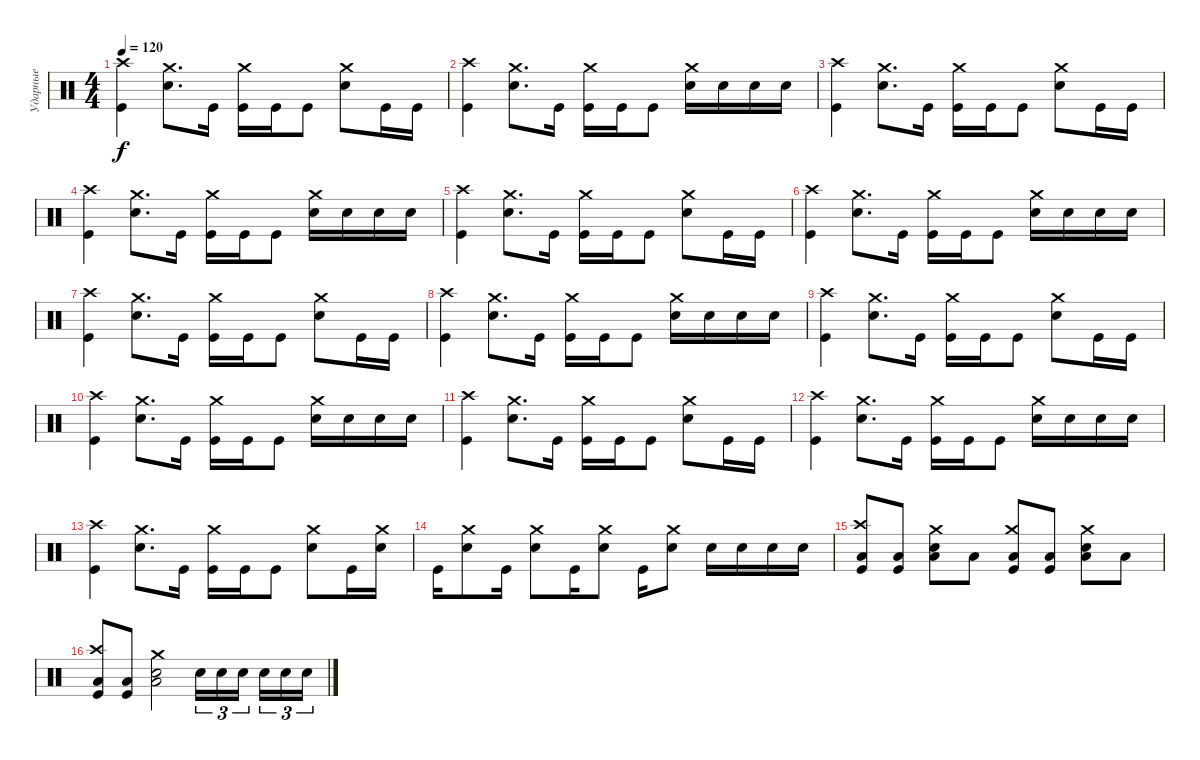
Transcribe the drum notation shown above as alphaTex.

\track ("Ударные" "Ударные") {instrument percussion}
\staff {score}
\articulation defaults
\ts (4 4)
\tempo 120
\clef neutral
\ks c
("Kick (hit)" "Crash high (hit)").4{dy f} ("Snare (hit) 2" "Crash medium (hit)").8{d} "Kick (hit)".16 ("Kick (hit)" "Crash medium (hit)").16 "Kick (hit)".16 "Kick (hit)".8 ("Snare (hit) 2" "Crash medium (hit)").8 "Kick (hit)".16 "Kick (hit)".16 |
("Kick (hit)" "Crash high (hit)").4 ("Snare (hit) 2" "Crash medium (hit)").8{d} "Kick (hit)".16 ("Kick (hit)" "Crash medium (hit)").16 "Kick (hit)".16 "Kick (hit)".8 ("Snare (hit) 2" "Crash medium (hit)").16 "Snare (hit) 2".16 "Snare (hit) 2".16 "Snare (hit) 2".16 |
("Kick (hit)" "Crash high (hit)").4 ("Snare (hit) 2" "Crash medium (hit)").8{d} "Kick (hit)".16 ("Kick (hit)" "Crash medium (hit)").16 "Kick (hit)".16 "Kick (hit)".8 ("Snare (hit) 2" "Crash medium (hit)").8 "Kick (hit)".16 "Kick (hit)".16 |
("Kick (hit)" "Crash high (hit)").4 ("Snare (hit) 2" "Crash medium (hit)").8{d} "Kick (hit)".16 ("Kick (hit)" "Crash medium (hit)").16 "Kick (hit)".16 "Kick (hit)".8 ("Snare (hit) 2" "Crash medium (hit)").16 "Snare (hit) 2".16 "Snare (hit) 2".16 "Snare (hit) 2".16 |
("Kick (hit)" "Crash high (hit)").4 ("Snare (hit) 2" "Crash medium (hit)").8{d} "Kick (hit)".16 ("Kick (hit)" "Crash medium (hit)").16 "Kick (hit)".16 "Kick (hit)".8 ("Snare (hit) 2" "Crash medium (hit)").8 "Kick (hit)".16 "Kick (hit)".16 |
("Kick (hit)" "Crash high (hit)").4 ("Snare (hit) 2" "Crash medium (hit)").8{d} "Kick (hit)".16 ("Kick (hit)" "Crash medium (hit)").16 "Kick (hit)".16 "Kick (hit)".8 ("Snare (hit) 2" "Crash medium (hit)").16 "Snare (hit) 2".16 "Snare (hit) 2".16 "Snare (hit) 2".16 |
("Kick (hit)" "Crash high (hit)").4 ("Snare (hit) 2" "Crash medium (hit)").8{d} "Kick (hit)".16 ("Kick (hit)" "Crash medium (hit)").16 "Kick (hit)".16 "Kick (hit)".8 ("Snare (hit) 2" "Crash medium (hit)").8 "Kick (hit)".16 "Kick (hit)".16 |
("Kick (hit)" "Crash high (hit)").4 ("Snare (hit) 2" "Crash medium (hit)").8{d} "Kick (hit)".16 ("Kick (hit)" "Crash medium (hit)").16 "Kick (hit)".16 "Kick (hit)".8 ("Snare (hit) 2" "Crash medium (hit)").16 "Snare (hit) 2".16 "Snare (hit) 2".16 "Snare (hit) 2".16 |
("Kick (hit)" "Crash high (hit)").4 ("Snare (hit) 2" "Crash medium (hit)").8{d} "Kick (hit)".16 ("Kick (hit)" "Crash medium (hit)").16 "Kick (hit)".16 "Kick (hit)".8 ("Snare (hit) 2" "Crash medium (hit)").8 "Kick (hit)".16 "Kick (hit)".16 |
("Kick (hit)" "Crash high (hit)").4 ("Snare (hit) 2" "Crash medium (hit)").8{d} "Kick (hit)".16 ("Kick (hit)" "Crash medium (hit)").16 "Kick (hit)".16 "Kick (hit)".8 ("Snare (hit) 2" "Crash medium (hit)").16 "Snare (hit) 2".16 "Snare (hit) 2".16 "Snare (hit) 2".16 |
("Kick (hit)" "Crash high (hit)").4 ("Snare (hit) 2" "Crash medium (hit)").8{d} "Kick (hit)".16 ("Kick (hit)" "Crash medium (hit)").16 "Kick (hit)".16 "Kick (hit)".8 ("Snare (hit) 2" "Crash medium (hit)").8 "Kick (hit)".16 "Kick (hit)".16 |
("Kick (hit)" "Crash high (hit)").4 ("Snare (hit) 2" "Crash medium (hit)").8{d} "Kick (hit)".16 ("Kick (hit)" "Crash medium (hit)").16 "Kick (hit)".16 "Kick (hit)".8 ("Snare (hit) 2" "Crash medium (hit)").16 "Snare (hit) 2".16 "Snare (hit) 2".16 "Snare (hit) 2".16 |
("Kick (hit)" "Crash high (hit)").4 ("Snare (hit) 2" "Crash medium (hit)").8{d} "Kick (hit)".16 ("Kick (hit)" "Crash medium (hit)").16 "Kick (hit)".16 "Kick (hit)".8 ("Snare (hit) 2" "Crash medium (hit)").8 "Kick (hit)".16 ("Snare (hit) 2" "Crash medium (hit)").16 |
"Kick (hit)".16 ("Snare (hit) 2" "Crash medium (hit)").8 "Kick (hit)".16 ("Snare (hit) 2" "Crash medium (hit)").8 "Kick (hit)".16 ("Snare (hit) 2" "Crash medium (hit)").8 "Kick (hit)".16 ("Snare (hit) 2" "Crash medium (hit)").8 "Snare (hit) 2".16 "Snare (hit) 2".16 "Snare (hit) 2".16 "Snare (hit) 2".16 |
("Low Tom (hit)" "Kick (hit)" "Crash high (hit)").8 ("Low Tom (hit)" "Kick (hit)").8 ("Low Tom (hit)" "Snare (hit) 2" "Crash medium (hit)").8 "Low Tom (hit)".8 ("Low Tom (hit)" "Kick (hit)" "Crash medium (hit)").8 ("Low Tom (hit)" "Kick (hit)").8 ("Low Tom (hit)" "Snare (hit) 2" "Crash medium (hit)").8 "Low Tom (hit)".8 |
("Low Tom (hit)" "Kick (hit)" "Crash high (hit)").8 ("Low Tom (hit)" "Kick (hit)").8 ("Low Tom (hit)" "Snare (hit) 2" "Crash medium (hit)").2 "Snare (hit) 2".16{tu (3 2)} "Snare (hit) 2".16{tu (3 2)} "Snare (hit) 2".16{tu (3 2) beam splitsecondary} "Snare (hit) 2".16{tu (3 2)} "Snare (hit) 2".16{tu (3 2)} "Snare (hit) 2".16{tu (3 2)}
